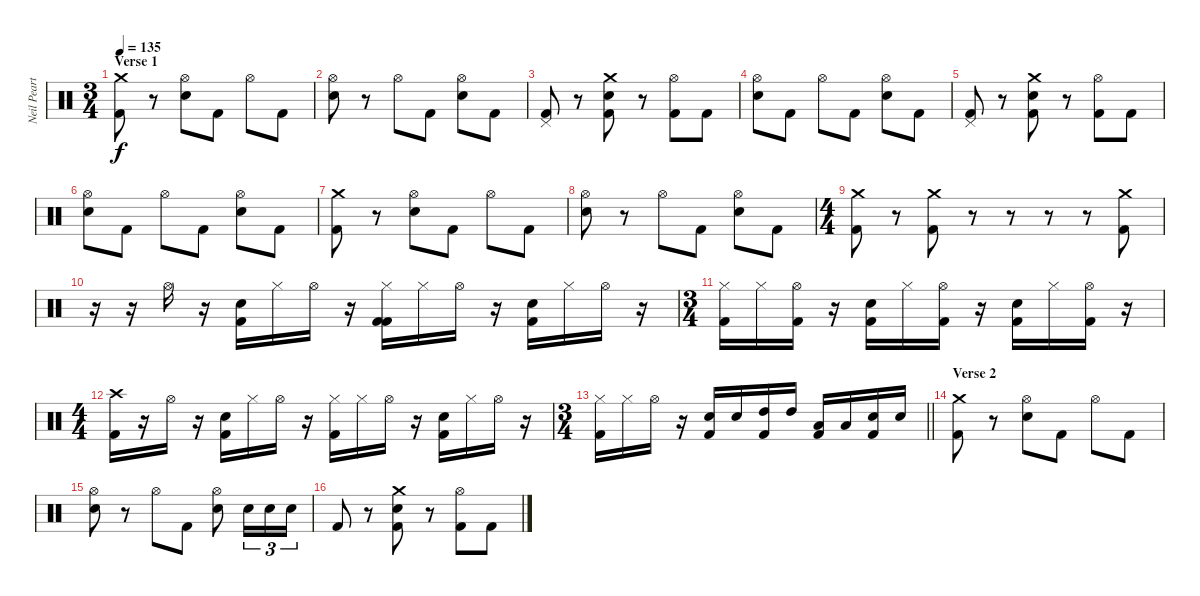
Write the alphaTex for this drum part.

\track ("Neil Peart" "Neil Peart") {instrument percussion}
\staff {score}
\articulation defaults
\ts (3 4)
\section ("" "Verse 1")
\tempo 135
\clef neutral
\ks c
("Crash medium (hit)" "Kick (hit) 2").8{dy f} r.8 ("Hi-Hat (open)" "Snare (hit) 2").8 "Kick (hit) 2".8 "Hi-Hat (open)".8 "Kick (hit) 2".8 |
("Hi-Hat (open)" "Snare (hit) 2").8 r.8 "Hi-Hat (open)".8 "Kick (hit) 2".8 ("Hi-Hat (open)" "Snare (hit) 2").8 "Kick (hit) 2".8 |
("Pedal Hi-Hat (hit)" "Kick (hit) 2").8 r.8 ("Crash medium (hit)" "Snare (hit) 2" "Kick (hit) 2").8 r.8 ("Hi-Hat (open)" "Kick (hit) 2").8 "Kick (hit) 2".8 |
("Hi-Hat (open)" "Snare (hit) 2").8 "Kick (hit) 2".8 "Hi-Hat (open)".8 "Kick (hit) 2".8 ("Hi-Hat (open)" "Snare (hit) 2").8 "Kick (hit) 2".8 |
("Pedal Hi-Hat (hit)" "Kick (hit) 2").8 r.8 ("Crash medium (hit)" "Snare (hit) 2" "Kick (hit) 2").8 r.8 ("Hi-Hat (open)" "Kick (hit) 2").8 "Kick (hit) 2".8 |
("Hi-Hat (open)" "Snare (hit) 2").8 "Kick (hit) 2".8 "Hi-Hat (open)".8 "Kick (hit) 2".8 ("Hi-Hat (open)" "Snare (hit) 2").8 "Kick (hit) 2".8 |
("Crash medium (hit)" "Kick (hit) 2").8 r.8 ("Hi-Hat (open)" "Snare (hit) 2").8 "Kick (hit) 2".8 "Hi-Hat (open)".8 "Kick (hit) 2".8 |
("Hi-Hat (open)" "Snare (hit) 2").8 r.8 "Hi-Hat (open)".8 "Kick (hit) 2".8 ("Hi-Hat (open)" "Snare (hit) 2").8 "Kick (hit) 2".8 |
\ts (4 4)
("Crash medium (hit)" "Kick (hit) 2").8 r.8 ("Crash medium (hit)" "Kick (hit) 2").8 r.8 r.8 r.8 r.8 ("Crash medium (hit)" "Kick (hit) 2").8 |
r.16 r.16 "Hi-Hat (open)".16 r.16 ("Snare (hit) 2" "Kick (hit) 2").16 "Hi-Hat (closed)".16 "Hi-Hat (open)".16 r.16 ("Hi-Hat (closed)" "Kick (hit) 2" "Kick (hit) 2").16 "Hi-Hat (closed)".16 "Hi-Hat (open)".16 r.16 ("Snare (hit) 2" "Kick (hit) 2").16 "Hi-Hat (closed)".16 "Hi-Hat (open)".16 r.16 |
\ts (3 4)
("Hi-Hat (closed)" "Kick (hit) 2").16 "Hi-Hat (closed)".16 ("Hi-Hat (open)" "Kick (hit) 2").16 r.16 ("Snare (hit) 2" "Kick (hit) 2").16 "Hi-Hat (closed)".16 ("Hi-Hat (open)" "Kick (hit) 2").16 r.16 ("Snare (hit) 2" "Kick (hit) 2").16 "Hi-Hat (closed)".16 ("Hi-Hat (open)" "Kick (hit) 2").16 r.16 |
\ts (4 4)
("Crash high (hit)" "Kick (hit) 2").16 r.16 "Hi-Hat (open)".16 r.16 ("Snare (hit) 2" "Kick (hit) 2").16 "Hi-Hat (closed)".16 "Hi-Hat (open)".16 r.16 ("Hi-Hat (closed)" "Kick (hit) 2").16 "Hi-Hat (closed)".16 "Hi-Hat (open)".16 r.16 ("Snare (hit) 2" "Kick (hit) 2").16 "Hi-Hat (closed)".16 "Hi-Hat (open)".16 r.16 |
\ts (3 4)
\barLineRight lightlight
("Hi-Hat (closed)" "Kick (hit) 2").16 "Hi-Hat (closed)".16 "Hi-Hat (open)".16 r.16 ("Snare (hit) 2" "Kick (hit) 2").16 "Snare (hit) 2".16 ("High Tom (hit)" "Kick (hit) 2").16 "High Tom (hit)".16 ("Low Tom (hit)" "Kick (hit) 2").16 "Low Tom (hit)".16 ("Snare (hit) 2" "Kick (hit) 2").16 "Snare (hit) 2".16 |
\section ("" "Verse 2")
("Crash medium (hit)" "Kick (hit) 2").8 r.8 ("Hi-Hat (open)" "Snare (hit) 2").8 "Kick (hit) 2".8 "Hi-Hat (open)".8 "Kick (hit) 2".8 |
("Hi-Hat (open)" "Snare (hit) 2").8 r.8 "Hi-Hat (open)".8 "Kick (hit) 2".8 ("Hi-Hat (open)" "Snare (hit) 2").8 "Snare (hit) 2".16{tu (3 2)} "Snare (hit) 2".16{tu (3 2)} "Snare (hit) 2".16{tu (3 2)} |
"Kick (hit) 2".8 r.8 ("Crash medium (hit)" "Snare (hit) 2" "Kick (hit) 2").8 r.8 ("Hi-Hat (open)" "Kick (hit) 2").8 "Kick (hit) 2".8
